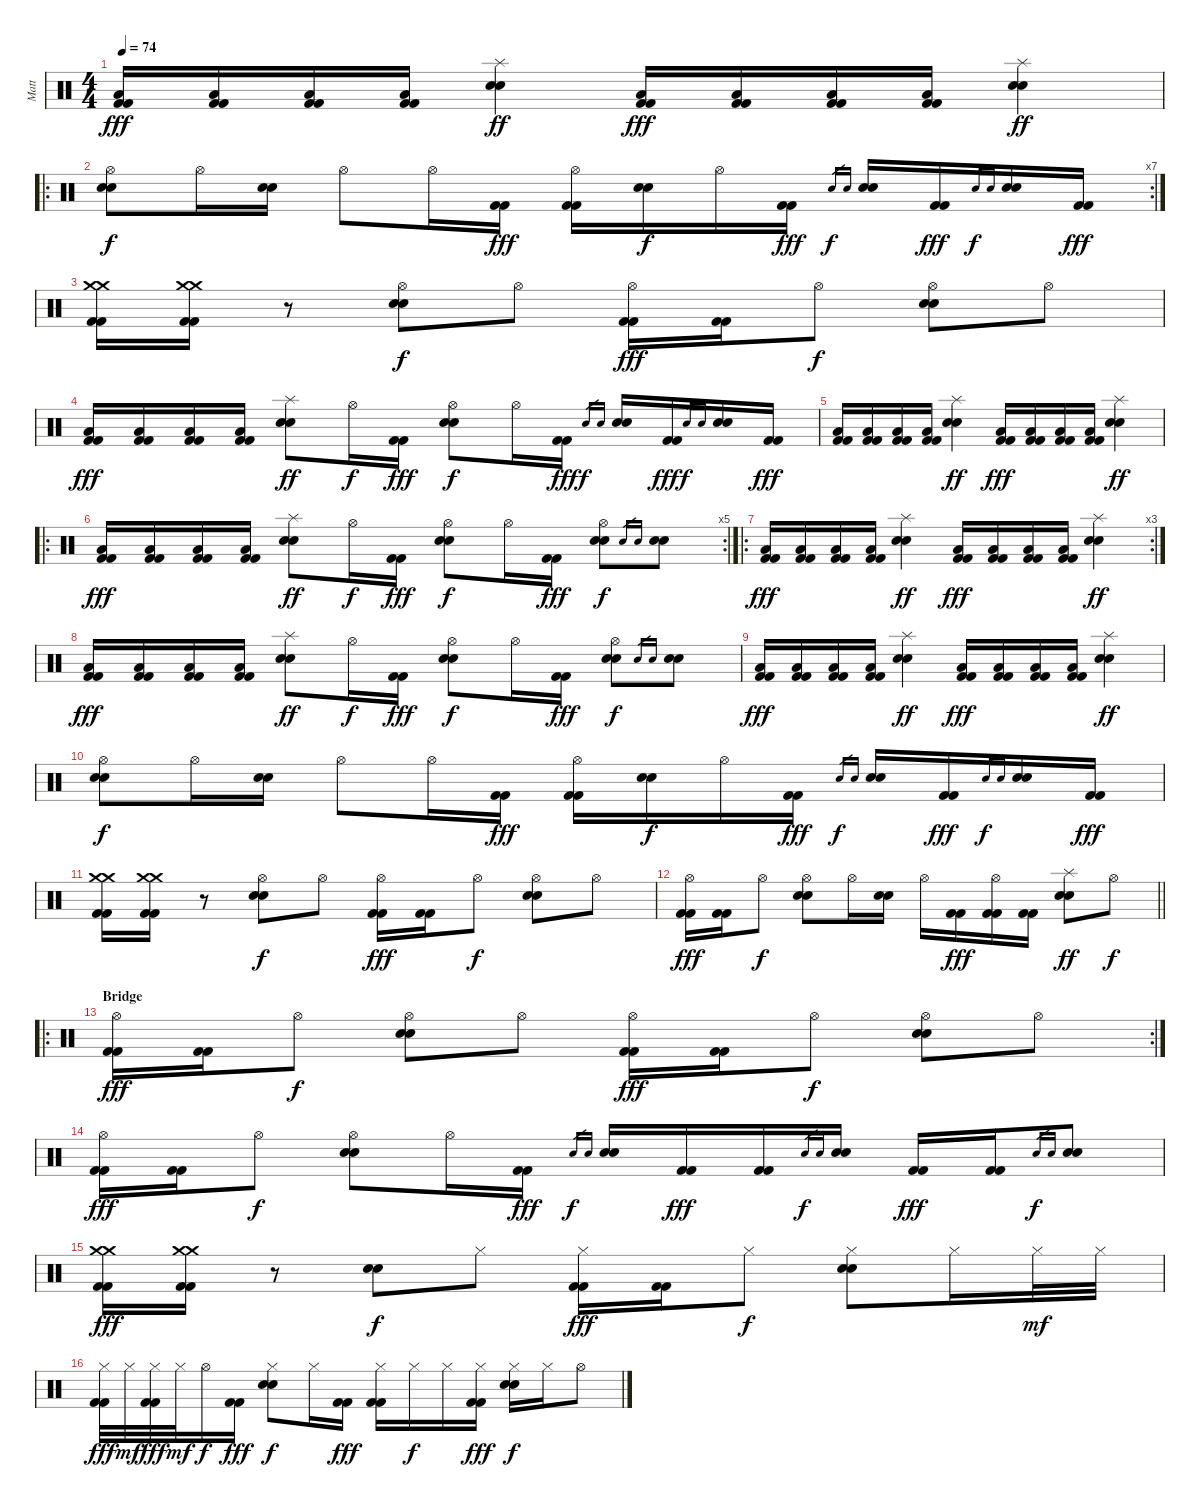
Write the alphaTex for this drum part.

\track ("Matt" "Matt") {instrument percussion}
\staff {score}
\articulation defaults
\ts (4 4)
\tempo 74
\clef neutral
\ks c
("Low Tom (hit)" "Kick (hit) 2" "Kick (hit) 2").16{dy fff} ("Low Tom (hit)" "Kick (hit) 2" "Kick (hit) 2").16 ("Low Tom (hit)" "Kick (hit) 2" "Kick (hit) 2").16 ("Low Tom (hit)" "Kick (hit) 2" "Kick (hit) 2").16 ("Splash (hit)" "Electric Snare (hit)" "Electric Snare (hit)").4{dy ff} ("Low Tom (hit)" "Kick (hit) 2" "Kick (hit) 2").16{dy fff} ("Low Tom (hit)" "Kick (hit) 2" "Kick (hit) 2").16 ("Low Tom (hit)" "Kick (hit) 2" "Kick (hit) 2").16 ("Low Tom (hit)" "Kick (hit) 2" "Kick (hit) 2").16 ("Splash (hit)" "Electric Snare (hit)" "Electric Snare (hit)").4{dy ff} |
\ro
\rc 7
("Hi-Hat (open)" "Electric Snare (hit)" "Electric Snare (hit)").8{dy f} "Hi-Hat (open)".16 ("Electric Snare (hit)" "Electric Snare (hit)").16 "Hi-Hat (open)".8 "Hi-Hat (open)".16 ("Kick (hit) 2" "Kick (hit) 2").16{dy fff} ("Hi-Hat (open)" "Kick (hit) 2" "Kick (hit) 2").16 ("Electric Snare (hit)" "Electric Snare (hit)").16{dy f} "Hi-Hat (open)".16 ("Kick (hit) 2" "Kick (hit) 2").16{dy fff} "Electric Snare (hit)".16{gr dy f} "Electric Snare (hit)".16{gr} ("Electric Snare (hit)" "Electric Snare (hit)").16 ("Kick (hit) 2" "Kick (hit) 2").16{dy fff} "Electric Snare (hit)".16{gr dy f} "Electric Snare (hit)".16{gr} ("Electric Snare (hit)" "Electric Snare (hit)").16 ("Kick (hit) 2" "Kick (hit) 2").16{dy fff} |
("Crash medium (hit)" "Crash medium (hit)" "Kick (hit) 2" "Kick (hit) 2").16 ("Crash medium (hit)" "Crash medium (hit)" "Kick (hit) 2" "Kick (hit) 2").16 r.8 ("Hi-Hat (open)" "Electric Snare (hit)" "Electric Snare (hit)").8{dy f} "Hi-Hat (open)".8 ("Hi-Hat (open)" "Kick (hit) 2" "Kick (hit) 2").16{dy fff} ("Kick (hit) 2" "Kick (hit) 2").16 "Hi-Hat (open)".8{dy f} ("Hi-Hat (open)" "Electric Snare (hit)" "Electric Snare (hit)").8 "Hi-Hat (open)".8 |
("Low Tom (hit)" "Kick (hit) 2" "Kick (hit) 2").16{dy fff} ("Low Tom (hit)" "Kick (hit) 2" "Kick (hit) 2").16 ("Low Tom (hit)" "Kick (hit) 2" "Kick (hit) 2").16 ("Low Tom (hit)" "Kick (hit) 2" "Kick (hit) 2").16 ("Splash (hit)" "Electric Snare (hit)" "Electric Snare (hit)").8{dy ff} "Hi-Hat (open)".16{dy f} ("Kick (hit) 2" "Kick (hit) 2").16{dy fff} ("Hi-Hat (open)" "Electric Snare (hit)" "Electric Snare (hit)").8{dy f} "Hi-Hat (open)".16 ("Kick (hit) 2" "Kick (hit) 2").16{dy fff} "Electric Snare (hit)".16{gr dy f} "Electric Snare (hit)".16{gr} ("Electric Snare (hit)" "Electric Snare (hit)").16 ("Kick (hit) 2" "Kick (hit) 2").16{dy fff} "Electric Snare (hit)".16{gr dy f} "Electric Snare (hit)".16{gr} ("Electric Snare (hit)" "Electric Snare (hit)").16 ("Kick (hit) 2" "Kick (hit) 2").16{dy fff} |
("Low Tom (hit)" "Kick (hit) 2" "Kick (hit) 2").16 ("Low Tom (hit)" "Kick (hit) 2" "Kick (hit) 2").16 ("Low Tom (hit)" "Kick (hit) 2" "Kick (hit) 2").16 ("Low Tom (hit)" "Kick (hit) 2" "Kick (hit) 2").16 ("Splash (hit)" "Electric Snare (hit)" "Electric Snare (hit)").4{dy ff} ("Low Tom (hit)" "Kick (hit) 2" "Kick (hit) 2").16{dy fff} ("Low Tom (hit)" "Kick (hit) 2" "Kick (hit) 2").16 ("Low Tom (hit)" "Kick (hit) 2" "Kick (hit) 2").16 ("Low Tom (hit)" "Kick (hit) 2" "Kick (hit) 2").16 ("Splash (hit)" "Electric Snare (hit)" "Electric Snare (hit)").4{dy ff} |
\ro
\rc 5
("Low Tom (hit)" "Kick (hit) 2" "Kick (hit) 2").16{dy fff} ("Low Tom (hit)" "Kick (hit) 2" "Kick (hit) 2").16 ("Low Tom (hit)" "Kick (hit) 2" "Kick (hit) 2").16 ("Low Tom (hit)" "Kick (hit) 2" "Kick (hit) 2").16 ("Splash (hit)" "Electric Snare (hit)" "Electric Snare (hit)").8{dy ff} "Hi-Hat (open)".16{dy f} ("Kick (hit) 2" "Kick (hit) 2").16{dy fff} ("Hi-Hat (open)" "Electric Snare (hit)" "Electric Snare (hit)").8{dy f} "Hi-Hat (open)".16 ("Kick (hit) 2" "Kick (hit) 2").16{dy fff} ("Hi-Hat (open)" "Electric Snare (hit)" "Electric Snare (hit)").8{dy f} "Electric Snare (hit)".16{gr} "Electric Snare (hit)".16{gr} ("Electric Snare (hit)" "Electric Snare (hit)").8 |
\ro
\rc 3
("Low Tom (hit)" "Kick (hit) 2" "Kick (hit) 2").16{dy fff} ("Low Tom (hit)" "Kick (hit) 2" "Kick (hit) 2").16 ("Low Tom (hit)" "Kick (hit) 2" "Kick (hit) 2").16 ("Low Tom (hit)" "Kick (hit) 2" "Kick (hit) 2").16 ("Splash (hit)" "Electric Snare (hit)" "Electric Snare (hit)").4{dy ff} ("Low Tom (hit)" "Kick (hit) 2" "Kick (hit) 2").16{dy fff} ("Low Tom (hit)" "Kick (hit) 2" "Kick (hit) 2").16 ("Low Tom (hit)" "Kick (hit) 2" "Kick (hit) 2").16 ("Low Tom (hit)" "Kick (hit) 2" "Kick (hit) 2").16 ("Splash (hit)" "Electric Snare (hit)" "Electric Snare (hit)").4{dy ff} |
("Low Tom (hit)" "Kick (hit) 2" "Kick (hit) 2").16{dy fff} ("Low Tom (hit)" "Kick (hit) 2" "Kick (hit) 2").16 ("Low Tom (hit)" "Kick (hit) 2" "Kick (hit) 2").16 ("Low Tom (hit)" "Kick (hit) 2" "Kick (hit) 2").16 ("Splash (hit)" "Electric Snare (hit)" "Electric Snare (hit)").8{dy ff} "Hi-Hat (open)".16{dy f} ("Kick (hit) 2" "Kick (hit) 2").16{dy fff} ("Hi-Hat (open)" "Electric Snare (hit)" "Electric Snare (hit)").8{dy f} "Hi-Hat (open)".16 ("Kick (hit) 2" "Kick (hit) 2").16{dy fff} ("Hi-Hat (open)" "Electric Snare (hit)" "Electric Snare (hit)").8{dy f} "Electric Snare (hit)".16{gr} "Electric Snare (hit)".16{gr} ("Electric Snare (hit)" "Electric Snare (hit)").8 |
("Low Tom (hit)" "Kick (hit) 2" "Kick (hit) 2").16{dy fff} ("Low Tom (hit)" "Kick (hit) 2" "Kick (hit) 2").16 ("Low Tom (hit)" "Kick (hit) 2" "Kick (hit) 2").16 ("Low Tom (hit)" "Kick (hit) 2" "Kick (hit) 2").16 ("Splash (hit)" "Electric Snare (hit)" "Electric Snare (hit)").4{dy ff} ("Low Tom (hit)" "Kick (hit) 2" "Kick (hit) 2").16{dy fff} ("Low Tom (hit)" "Kick (hit) 2" "Kick (hit) 2").16 ("Low Tom (hit)" "Kick (hit) 2" "Kick (hit) 2").16 ("Low Tom (hit)" "Kick (hit) 2" "Kick (hit) 2").16 ("Splash (hit)" "Electric Snare (hit)" "Electric Snare (hit)").4{dy ff} |
("Hi-Hat (open)" "Electric Snare (hit)" "Electric Snare (hit)").8{dy f} "Hi-Hat (open)".16 ("Electric Snare (hit)" "Electric Snare (hit)").16 "Hi-Hat (open)".8 "Hi-Hat (open)".16 ("Kick (hit) 2" "Kick (hit) 2").16{dy fff} ("Hi-Hat (open)" "Kick (hit) 2" "Kick (hit) 2").16 ("Electric Snare (hit)" "Electric Snare (hit)").16{dy f} "Hi-Hat (open)".16 ("Kick (hit) 2" "Kick (hit) 2").16{dy fff} "Electric Snare (hit)".16{gr dy f} "Electric Snare (hit)".16{gr} ("Electric Snare (hit)" "Electric Snare (hit)").16 ("Kick (hit) 2" "Kick (hit) 2").16{dy fff} "Electric Snare (hit)".16{gr dy f} "Electric Snare (hit)".16{gr} ("Electric Snare (hit)" "Electric Snare (hit)").16 ("Kick (hit) 2" "Kick (hit) 2").16{dy fff} |
("Crash medium (hit)" "Crash medium (hit)" "Kick (hit) 2" "Kick (hit) 2").16 ("Crash medium (hit)" "Crash medium (hit)" "Kick (hit) 2" "Kick (hit) 2").16 r.8 ("Hi-Hat (open)" "Electric Snare (hit)" "Electric Snare (hit)").8{dy f} "Hi-Hat (open)".8 ("Hi-Hat (open)" "Kick (hit) 2" "Kick (hit) 2").16{dy fff} ("Kick (hit) 2" "Kick (hit) 2").16 "Hi-Hat (open)".8{dy f} ("Hi-Hat (open)" "Electric Snare (hit)" "Electric Snare (hit)").8 "Hi-Hat (open)".8 |
\barLineRight lightlight
("Hi-Hat (open)" "Kick (hit) 2" "Kick (hit) 2").16{dy fff} ("Kick (hit) 2" "Kick (hit) 2").16 "Hi-Hat (open)".8{dy f} ("Hi-Hat (open)" "Electric Snare (hit)" "Electric Snare (hit)").8 "Hi-Hat (open)".16 ("Electric Snare (hit)" "Electric Snare (hit)").16 "Hi-Hat (open)".16 ("Kick (hit) 2" "Kick (hit) 2").16{dy fff} ("Hi-Hat (open)" "Kick (hit) 2" "Kick (hit) 2").16 ("Kick (hit) 2" "Kick (hit) 2").16 ("Splash (hit)" "Electric Snare (hit)" "Electric Snare (hit)").8{dy ff} "Hi-Hat (open)".8{dy f} |
\ro
\rc 2
\section ("" "Bridge")
("Hi-Hat (open)" "Kick (hit) 2" "Kick (hit) 2").16{dy fff} ("Kick (hit) 2" "Kick (hit) 2").16 "Hi-Hat (open)".8{dy f} ("Hi-Hat (open)" "Electric Snare (hit)" "Electric Snare (hit)").8 "Hi-Hat (open)".8 ("Hi-Hat (open)" "Kick (hit) 2" "Kick (hit) 2").16{dy fff} ("Kick (hit) 2" "Kick (hit) 2").16 "Hi-Hat (open)".8{dy f} ("Hi-Hat (open)" "Electric Snare (hit)" "Electric Snare (hit)").8 "Hi-Hat (open)".8 |
("Hi-Hat (open)" "Kick (hit) 2" "Kick (hit) 2").16{dy fff} ("Kick (hit) 2" "Kick (hit) 2").16 "Hi-Hat (open)".8{dy f} ("Hi-Hat (open)" "Electric Snare (hit)" "Electric Snare (hit)").8 "Hi-Hat (open)".16 ("Kick (hit) 2" "Kick (hit) 2").16{dy fff} "Electric Snare (hit)".16{gr dy f} "Electric Snare (hit)".16{gr} ("Electric Snare (hit)" "Electric Snare (hit)").16 ("Kick (hit) 2" "Kick (hit) 2").16{dy fff} ("Kick (hit) 2" "Kick (hit) 2").16 "Electric Snare (hit)".16{gr dy f} "Electric Snare (hit)".16{gr} ("Electric Snare (hit)" "Electric Snare (hit)").16 ("Kick (hit) 2" "Kick (hit) 2").16{dy fff} ("Kick (hit) 2" "Kick (hit) 2").16 "Electric Snare (hit)".16{gr dy f} "Electric Snare (hit)".16{gr} ("Electric Snare (hit)" "Electric Snare (hit)").8 |
("Crash medium (hit)" "Crash medium (hit)" "Kick (hit) 2" "Kick (hit) 2").16{dy fff} ("Crash medium (hit)" "Crash medium (hit)" "Kick (hit) 2" "Kick (hit) 2").16 r.8 ("Electric Snare (hit)" "Electric Snare (hit)").8{dy f} "Hi-Hat (closed)".8 ("Hi-Hat (closed)" "Kick (hit) 2" "Kick (hit) 2").16{dy fff} ("Kick (hit) 2" "Kick (hit) 2").16 "Hi-Hat (closed)".8{dy f} ("Hi-Hat (closed)" "Electric Snare (hit)" "Electric Snare (hit)").8 "Hi-Hat (closed)".16 "Hi-Hat (closed)".32{dy mf} "Hi-Hat (closed)".32 |
("Hi-Hat (closed)" "Kick (hit) 2" "Kick (hit) 2").32{dy fff} "Hi-Hat (closed)".32{dy mf} ("Hi-Hat (closed)" "Kick (hit) 2" "Kick (hit) 2").32{dy fff} "Hi-Hat (closed)".32{dy mf} "Hi-Hat (open)".16{dy f} ("Kick (hit) 2" "Kick (hit) 2").16{dy fff} ("Hi-Hat (closed)" "Electric Snare (hit)" "Electric Snare (hit)").8{dy f} "Hi-Hat (closed)".16 ("Kick (hit) 2" "Kick (hit) 2").16{dy fff} ("Hi-Hat (closed)" "Kick (hit) 2" "Kick (hit) 2").16 "Hi-Hat (closed)".16{dy f} "Hi-Hat (closed)".16 ("Hi-Hat (closed)" "Kick (hit) 2" "Kick (hit) 2").16{dy fff} ("Hi-Hat (closed)" "Electric Snare (hit)" "Electric Snare (hit)").16{dy f} "Hi-Hat (closed)".16 "Hi-Hat (open)".8
